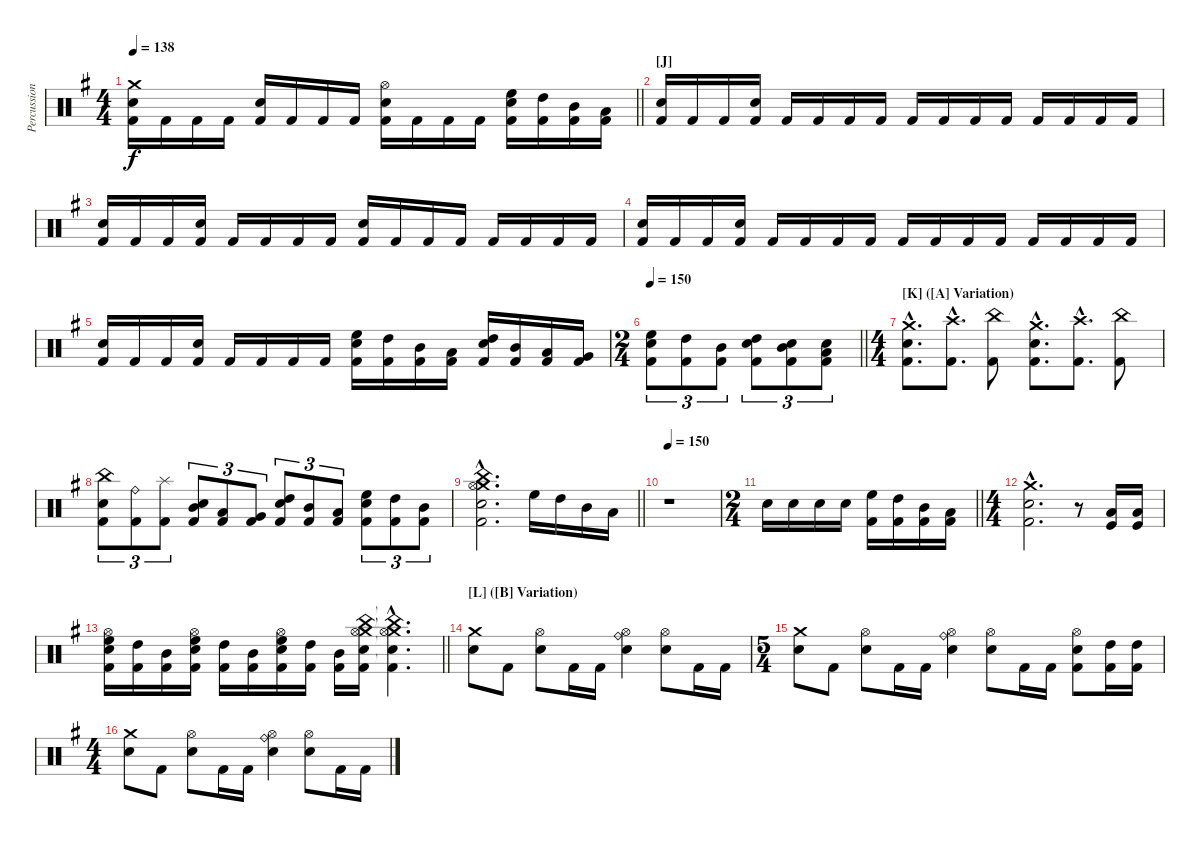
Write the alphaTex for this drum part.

\track ("Percussion" "Percussion") {instrument percussion}
\staff {score}
\articulation defaults
\ts (4 4)
\tempo 138
\clef neutral
\barLineRight lightlight
\ks eminor
("Crash medium (hit)" "Snare (hit) 2" "Kick (hit) 2").16{dy f} "Kick (hit) 2".16 "Kick (hit) 2".16 "Kick (hit) 2".16 ("Snare (hit) 2" "Kick (hit) 2").16 "Kick (hit) 2".16 "Kick (hit) 2".16 "Kick (hit) 2".16 ("Hi-Hat (open)" "Snare (hit) 2" "Kick (hit) 2").16 "Kick (hit) 2".16 "Kick (hit) 2".16 "Kick (hit) 2".16 ("High Floor Tom (hit)" "Snare (hit) 2" "Kick (hit) 2").16 ("High Tom (hit)" "Kick (hit) 2").16 ("Mid Tom (hit)" "Kick (hit) 2").16 ("Low Tom (hit)" "Kick (hit) 2").16 |
\section ("" "[J]")
("Snare (hit) 2" "Kick (hit) 2").16 "Kick (hit) 2".16 "Kick (hit) 2".16 ("Snare (hit) 2" "Kick (hit) 2").16 "Kick (hit) 2".16 "Kick (hit) 2".16 "Kick (hit) 2".16 "Kick (hit) 2".16 "Kick (hit) 2".16 "Kick (hit) 2".16 "Kick (hit) 2".16 "Kick (hit) 2".16 "Kick (hit) 2".16 "Kick (hit) 2".16 "Kick (hit) 2".16 "Kick (hit) 2".16 |
("Snare (hit) 2" "Kick (hit) 2").16 "Kick (hit) 2".16 "Kick (hit) 2".16 ("Snare (hit) 2" "Kick (hit) 2").16 "Kick (hit) 2".16 "Kick (hit) 2".16 "Kick (hit) 2".16 "Kick (hit) 2".16 ("Snare (hit) 2" "Kick (hit) 2").16 "Kick (hit) 2".16 "Kick (hit) 2".16 "Kick (hit) 2".16 "Kick (hit) 2".16 "Kick (hit) 2".16 "Kick (hit) 2".16 "Kick (hit) 2".16 |
("Snare (hit) 2" "Kick (hit) 2").16 "Kick (hit) 2".16 "Kick (hit) 2".16 ("Snare (hit) 2" "Kick (hit) 2").16 "Kick (hit) 2".16 "Kick (hit) 2".16 "Kick (hit) 2".16 "Kick (hit) 2".16 "Kick (hit) 2".16 "Kick (hit) 2".16 "Kick (hit) 2".16 "Kick (hit) 2".16 "Kick (hit) 2".16 "Kick (hit) 2".16 "Kick (hit) 2".16 "Kick (hit) 2".16 |
("Snare (hit) 2" "Kick (hit) 2").16 "Kick (hit) 2".16 "Kick (hit) 2".16 ("Snare (hit) 2" "Kick (hit) 2").16 "Kick (hit) 2".16 "Kick (hit) 2".16 "Kick (hit) 2".16 "Kick (hit) 2".16 ("High Floor Tom (hit)" "Snare (hit) 2" "Kick (hit) 2").16 ("High Tom (hit)" "Kick (hit) 2").16 ("Mid Tom (hit)" "Kick (hit) 2").16 ("Low Tom (hit)" "Kick (hit) 2").16 ("High Tom (hit)" "Snare (hit) 2" "Kick (hit) 2").16 ("Mid Tom (hit)" "Kick (hit) 2").16 ("Low Tom (hit)" "Kick (hit) 2").16 ("Very Low Tom (hit)" "Kick (hit) 2").16 |
\ts (2 4)
\tempo 150
\barLineRight lightlight
("High Floor Tom (hit)" "Snare (hit) 2" "Kick (hit) 2").8{tu (3 2)} ("High Tom (hit)" "Kick (hit) 2").8{tu (3 2)} ("Mid Tom (hit)" "Kick (hit) 2").8{tu (3 2)} ("High Tom (hit)" "Snare (hit) 2" "Kick (hit) 2").8{tu (3 2)} ("Mid Tom (hit)" "Snare (hit) 2" "Kick (hit) 2").8{tu (3 2)} ("Low Tom (hit)" "Snare (hit) 2" "Kick (hit) 2").8{tu (3 2)} |
\ts (4 4)
\section ("" "[K] ([A] Variation)")
("Crash medium (hit)"{hac} "Snare (hit) 2"{hac} "Kick (hit) 2"{hac}).8{d} ("Crash high (hit)"{hac} "Kick (hit) 2"{hac}).8{d} ("China (hit)" "Kick (hit) 2").8 ("Crash medium (hit)"{hac} "Snare (hit) 2"{hac} "Kick (hit) 2"{hac}).8{d} ("Crash high (hit)"{hac} "Kick (hit) 2"{hac}).8{d} ("China (hit)" "Kick (hit) 2").8 |
("China (hit)" "Snare (hit) 2" "Kick (hit) 2").8{tu (3 2)} ("Ride (bell)" "Kick (hit) 2").8{tu (3 2)} ("Splash (hit)" "Kick (hit) 2").8{tu (3 2)} ("Mid Tom (hit)" "Snare (hit) 2" "Kick (hit) 2").8{tu (3 2)} ("Low Tom (hit)" "Kick (hit) 2").8{tu (3 2)} ("Very Low Tom (hit)" "Kick (hit) 2").8{tu (3 2)} ("High Tom (hit)" "Snare (hit) 2" "Kick (hit) 2").8{tu (3 2)} ("Mid Tom (hit)" "Kick (hit) 2").8{tu (3 2)} ("Low Tom (hit)" "Kick (hit) 2").8{tu (3 2)} ("High Floor Tom (hit)" "Snare (hit) 2" "Kick (hit) 2").8{tu (3 2)} ("High Tom (hit)" "Kick (hit) 2").8{tu (3 2)} ("Mid Tom (hit)" "Kick (hit) 2").8{tu (3 2)} |
\barLineRight lightlight
("Crash medium (hit)"{hac} "China (hit)"{hac} "Hi-Hat (open)"{hac} "Snare (hit) 2"{hac} "Kick (hit) 2"{hac}).2{d} "High Floor Tom (hit)".16 "High Tom (hit)".16 "Mid Tom (hit)".16 "Low Tom (hit)".16 |
\tempo 150
r.1 |
\ts (2 4)
\barLineRight lightlight "Snare (hit) 2".16 "Snare (hit) 2".16 "Snare (hit) 2".16 "Snare (hit) 2".16
("High Floor Tom (hit)" "Kick (hit) 2").16 ("High Tom (hit)" "Kick (hit) 2").16 ("Mid Tom (hit)" "Kick (hit) 2").16 ("Low Tom (hit)" "Kick (hit) 2").16 |
\ts (4 4)
("Crash medium (hit)"{hac} "Snare (hit) 2"{hac} "Kick (hit) 2"{hac}).2{d} r.8 ("Low Floor Tom (hit)" "Kick (hit)").16 ("Low Floor Tom (hit)" "Kick (hit)").16 |
\barLineRight lightlight
("High Floor Tom (hit)" "Hi-Hat (open)" "Snare (hit) 2" "Kick (hit) 2").16 ("High Tom (hit)" "Kick (hit) 2").16 ("Mid Tom (hit)" "Kick (hit) 2").16 ("High Floor Tom (hit)" "Hi-Hat (open)" "Snare (hit) 2" "Kick (hit) 2").16 ("High Tom (hit)" "Kick (hit) 2").16 ("Mid Tom (hit)" "Kick (hit) 2").16 ("High Floor Tom (hit)" "Hi-Hat (open)" "Snare (hit) 2" "Kick (hit) 2").16 ("High Tom (hit)" "Kick (hit) 2").16 ("Mid Tom (hit)" "Kick (hit) 2").16 ("Crash medium (hit)" "China (hit)" "Hi-Hat (open)" "Snare (hit) 2" "Kick (hit) 2").16 ("Crash medium (hit)"{hac t} "China (hit)"{hac t} "Hi-Hat (open)"{hac t} "Snare (hit) 2"{hac t} "Kick (hit) 2"{hac t}).4{d} |
\section ("" "[L] ([B] Variation)")
("Crash medium (hit)" "Snare (hit) 2").8 "Kick (hit) 2".8 ("Hi-Hat (open)" "Snare (hit) 2").8 "Kick (hit) 2".16 "Kick (hit) 2".16 ("Ride (bell)" "Hi-Hat (open)" "Snare (hit) 2").4 ("Hi-Hat (open)" "Snare (hit) 2").8 "Kick (hit) 2".16 "Kick (hit) 2".16 |
\ts (5 4)
("Crash medium (hit)" "Snare (hit) 2").8 "Kick (hit) 2".8 ("Hi-Hat (open)" "Snare (hit) 2").8 "Kick (hit) 2".16 "Kick (hit) 2".16 ("Ride (bell)" "Hi-Hat (open)" "Snare (hit) 2").4 ("Hi-Hat (open)" "Snare (hit) 2").8 "Kick (hit) 2".16 "Kick (hit) 2".16 ("Hi-Hat (open)" "Snare (hit) 2" "Kick (hit) 2").8 ("High Tom (hit)" "Kick (hit) 2").16 ("High Tom (hit)" "Kick (hit) 2").16 |
\ts (4 4)
("Crash medium (hit)" "Snare (hit) 2").8 "Kick (hit) 2".8 ("Hi-Hat (open)" "Snare (hit) 2").8 "Kick (hit) 2".16 "Kick (hit) 2".16 ("Ride (bell)" "Hi-Hat (open)" "Snare (hit) 2").4 ("Hi-Hat (open)" "Snare (hit) 2").8 "Kick (hit) 2".16 "Kick (hit) 2".16
